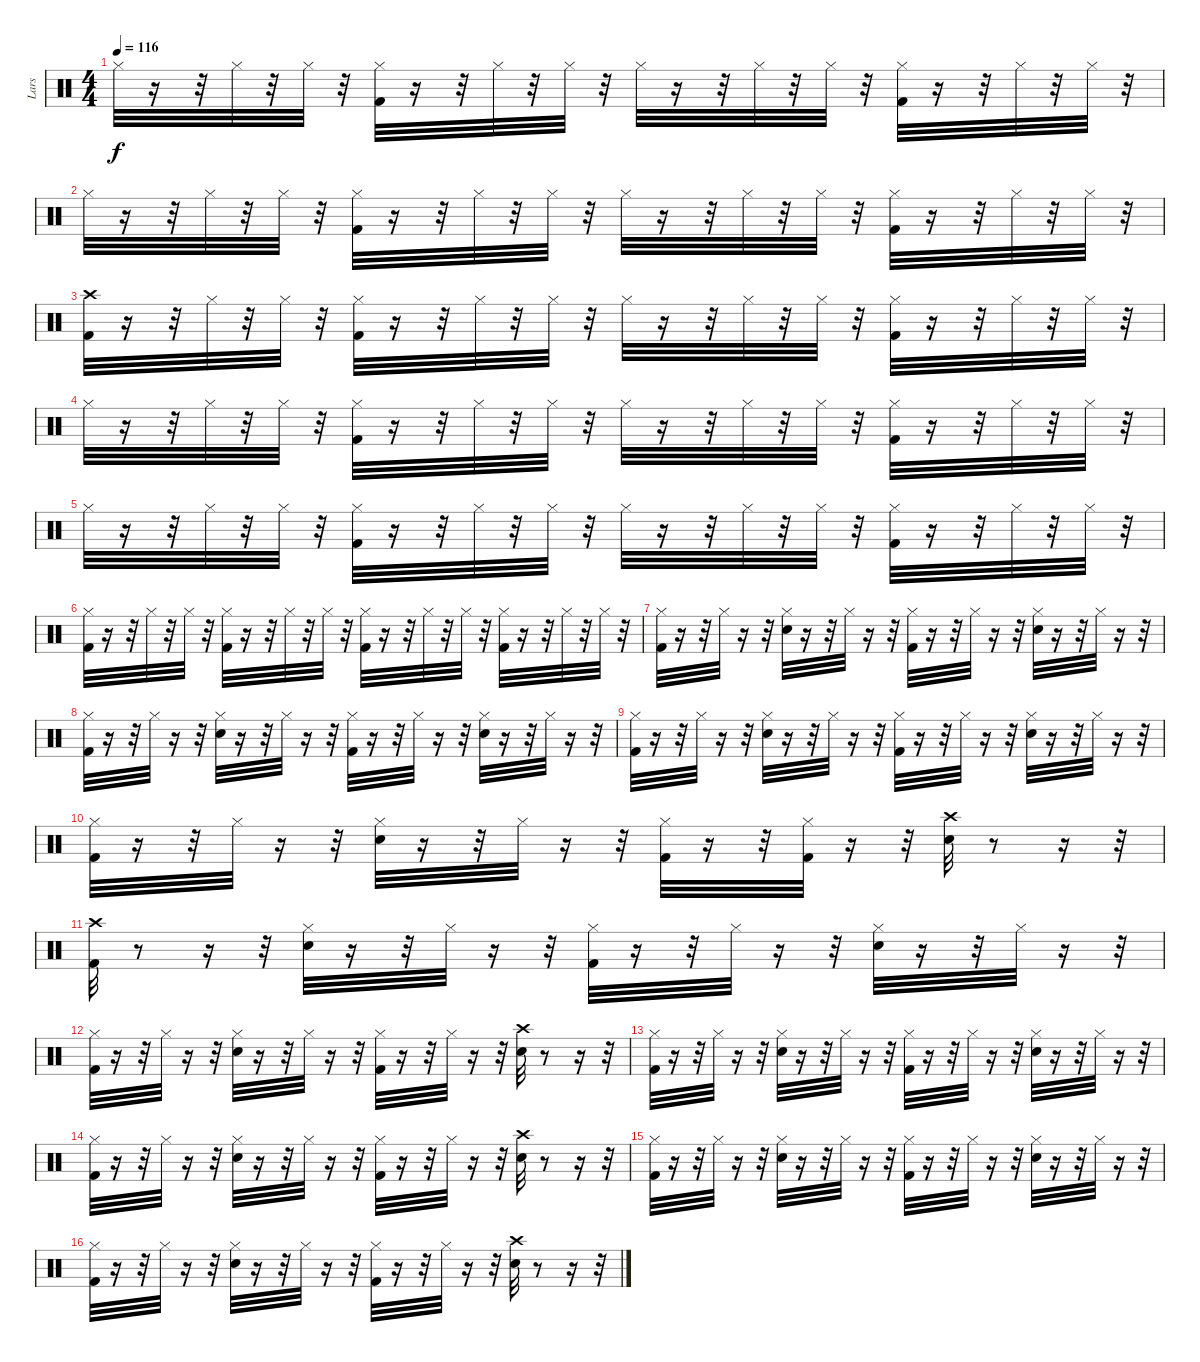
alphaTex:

\track ("Lars" "Lars") {instrument percussion}
\staff {score}
\articulation defaults
\ts (4 4)
\tempo 116
\clef neutral
\ks c "Hi-Hat (closed)".32{dy f}
r.16 r.32 "Hi-Hat (closed)".32 r.32 "Hi-Hat (closed)".32 r.32 ("Kick (hit) 2" "Hi-Hat (closed)").32 r.16 r.32 "Hi-Hat (closed)".32 r.32 "Hi-Hat (closed)".32 r.32 "Hi-Hat (closed)".32 r.16 r.32 "Hi-Hat (closed)".32 r.32 "Hi-Hat (closed)".32 r.32 ("Kick (hit) 2" "Hi-Hat (closed)").32 r.16 r.32 "Hi-Hat (closed)".32 r.32 "Hi-Hat (closed)".32 r.32 |
"Hi-Hat (closed)".32 r.16 r.32 "Hi-Hat (closed)".32 r.32 "Hi-Hat (closed)".32 r.32 ("Kick (hit) 2" "Hi-Hat (closed)").32 r.16 r.32 "Hi-Hat (closed)".32 r.32 "Hi-Hat (closed)".32 r.32 "Hi-Hat (closed)".32 r.16 r.32 "Hi-Hat (closed)".32 r.32 "Hi-Hat (closed)".32 r.32 ("Kick (hit) 2" "Hi-Hat (closed)").32 r.16 r.32 "Hi-Hat (closed)".32 r.32 "Hi-Hat (closed)".32 r.32 |
("Kick (hit) 2" "Crash high (hit)").32 r.16 r.32 "Hi-Hat (closed)".32 r.32 "Hi-Hat (closed)".32 r.32 ("Kick (hit) 2" "Hi-Hat (closed)").32 r.16 r.32 "Hi-Hat (closed)".32 r.32 "Hi-Hat (closed)".32 r.32 "Hi-Hat (closed)".32 r.16 r.32 "Hi-Hat (closed)".32 r.32 "Hi-Hat (closed)".32 r.32 ("Kick (hit) 2" "Hi-Hat (closed)").32 r.16 r.32 "Hi-Hat (closed)".32 r.32 "Hi-Hat (closed)".32 r.32 |
"Hi-Hat (closed)".32 r.16 r.32 "Hi-Hat (closed)".32 r.32 "Hi-Hat (closed)".32 r.32 ("Kick (hit) 2" "Hi-Hat (closed)").32 r.16 r.32 "Hi-Hat (closed)".32 r.32 "Hi-Hat (closed)".32 r.32 "Hi-Hat (closed)".32 r.16 r.32 "Hi-Hat (closed)".32 r.32 "Hi-Hat (closed)".32 r.32 ("Kick (hit) 2" "Hi-Hat (closed)").32 r.16 r.32 "Hi-Hat (closed)".32 r.32 "Hi-Hat (closed)".32 r.32 |
"Hi-Hat (closed)".32 r.16 r.32 "Hi-Hat (closed)".32 r.32 "Hi-Hat (closed)".32 r.32 ("Kick (hit) 2" "Hi-Hat (closed)").32 r.16 r.32 "Hi-Hat (closed)".32 r.32 "Hi-Hat (closed)".32 r.32 "Hi-Hat (closed)".32 r.16 r.32 "Hi-Hat (closed)".32 r.32 "Hi-Hat (closed)".32 r.32 ("Kick (hit) 2" "Hi-Hat (closed)").32 r.16 r.32 "Hi-Hat (closed)".32 r.32 "Hi-Hat (closed)".32 r.32 |
("Kick (hit) 2" "Hi-Hat (closed)").32 r.16 r.32 "Hi-Hat (closed)".32 r.32 "Hi-Hat (closed)".32 r.32 ("Kick (hit) 2" "Hi-Hat (closed)").32 r.16 r.32 "Hi-Hat (closed)".32 r.32 "Hi-Hat (closed)".32 r.32 ("Kick (hit) 2" "Hi-Hat (closed)").32 r.16 r.32 "Hi-Hat (closed)".32 r.32 "Hi-Hat (closed)".32 r.32 ("Kick (hit) 2" "Hi-Hat (closed)").32 r.16 r.32 "Hi-Hat (closed)".32 r.32 "Hi-Hat (closed)".32 r.32 |
("Kick (hit) 2" "Hi-Hat (closed)").32 r.16 r.32 "Hi-Hat (closed)".32 r.16 r.32 ("Snare (hit) 2" "Hi-Hat (closed)").32 r.16 r.32 "Hi-Hat (closed)".32 r.16 r.32 ("Kick (hit) 2" "Hi-Hat (closed)").32 r.16 r.32 "Hi-Hat (closed)".32 r.16 r.32 ("Snare (hit) 2" "Hi-Hat (closed)").32 r.16 r.32 "Hi-Hat (closed)".32 r.16 r.32 |
("Kick (hit) 2" "Hi-Hat (closed)").32 r.16 r.32 "Hi-Hat (closed)".32 r.16 r.32 ("Snare (hit) 2" "Hi-Hat (closed)").32 r.16 r.32 "Hi-Hat (closed)".32 r.16 r.32 ("Kick (hit) 2" "Hi-Hat (closed)").32 r.16 r.32 "Hi-Hat (closed)".32 r.16 r.32 ("Snare (hit) 2" "Hi-Hat (closed)").32 r.16 r.32 "Hi-Hat (closed)".32 r.16 r.32 |
("Kick (hit) 2" "Hi-Hat (closed)").32 r.16 r.32 "Hi-Hat (closed)".32 r.16 r.32 ("Snare (hit) 2" "Hi-Hat (closed)").32 r.16 r.32 "Hi-Hat (closed)".32 r.16 r.32 ("Kick (hit) 2" "Hi-Hat (closed)").32 r.16 r.32 "Hi-Hat (closed)".32 r.16 r.32 ("Snare (hit) 2" "Hi-Hat (closed)").32 r.16 r.32 "Hi-Hat (closed)".32 r.16 r.32 |
("Kick (hit) 2" "Hi-Hat (closed)").32 r.16 r.32 "Hi-Hat (closed)".32 r.16 r.32 ("Snare (hit) 2" "Hi-Hat (closed)").32 r.16 r.32 "Hi-Hat (closed)".32 r.16 r.32 ("Kick (hit) 2" "Hi-Hat (closed)").32 r.16 r.32 ("Kick (hit) 2" "Hi-Hat (closed)").32 r.16 r.32 ("Crash high (hit)" "Snare (hit) 2").32 r.8 r.16 r.32 |
("Kick (hit) 2" "Crash high (hit)").32 r.8 r.16 r.32 ("Hi-Hat (closed)" "Snare (hit) 2").32 r.16 r.32 "Hi-Hat (closed)".32 r.16 r.32 ("Hi-Hat (closed)" "Kick (hit) 2").32 r.16 r.32 "Hi-Hat (closed)".32 r.16 r.32 ("Snare (hit) 2" "Hi-Hat (closed)").32 r.16 r.32 "Hi-Hat (closed)".32 r.16 r.32 |
("Kick (hit) 2" "Hi-Hat (closed)").32 r.16 r.32 "Hi-Hat (closed)".32 r.16 r.32 ("Snare (hit) 2" "Hi-Hat (closed)").32 r.16 r.32 "Hi-Hat (closed)".32 r.16 r.32 ("Hi-Hat (closed)" "Kick (hit) 2").32 r.16 r.32 "Hi-Hat (closed)".32 r.16 r.32 ("Crash high (hit)" "Snare (hit) 2").32 r.8 r.16 r.32 |
("Kick (hit) 2" "Hi-Hat (closed)").32 r.16 r.32 "Hi-Hat (closed)".32 r.16 r.32 ("Snare (hit) 2" "Hi-Hat (closed)").32 r.16 r.32 "Hi-Hat (closed)".32 r.16 r.32 ("Kick (hit) 2" "Hi-Hat (closed)").32 r.16 r.32 "Hi-Hat (closed)".32 r.16 r.32 ("Snare (hit) 2" "Hi-Hat (closed)").32 r.16 r.32 "Hi-Hat (closed)".32 r.16 r.32 |
("Hi-Hat (closed)" "Kick (hit) 2").32 r.16 r.32 "Hi-Hat (closed)".32 r.16 r.32 ("Snare (hit) 2" "Hi-Hat (closed)").32 r.16 r.32 "Hi-Hat (closed)".32 r.16 r.32 ("Hi-Hat (closed)" "Kick (hit) 2").32 r.16 r.32 "Hi-Hat (closed)".32 r.16 r.32 ("Crash high (hit)" "Snare (hit) 2").32 r.8 r.16 r.32 |
("Kick (hit) 2" "Hi-Hat (closed)").32 r.16 r.32 "Hi-Hat (closed)".32 r.16 r.32 ("Snare (hit) 2" "Hi-Hat (closed)").32 r.16 r.32 "Hi-Hat (closed)".32 r.16 r.32 ("Kick (hit) 2" "Hi-Hat (closed)").32 r.16 r.32 "Hi-Hat (closed)".32 r.16 r.32 ("Snare (hit) 2" "Hi-Hat (closed)").32 r.16 r.32 "Hi-Hat (closed)".32 r.16 r.32 |
("Kick (hit) 2" "Hi-Hat (closed)").32 r.16 r.32 "Hi-Hat (closed)".32 r.16 r.32 ("Snare (hit) 2" "Hi-Hat (closed)").32 r.16 r.32 "Hi-Hat (closed)".32 r.16 r.32 ("Hi-Hat (closed)" "Kick (hit) 2").32 r.16 r.32 "Hi-Hat (closed)".32 r.16 r.32 ("Crash high (hit)" "Snare (hit) 2").32 r.8 r.16 r.32
